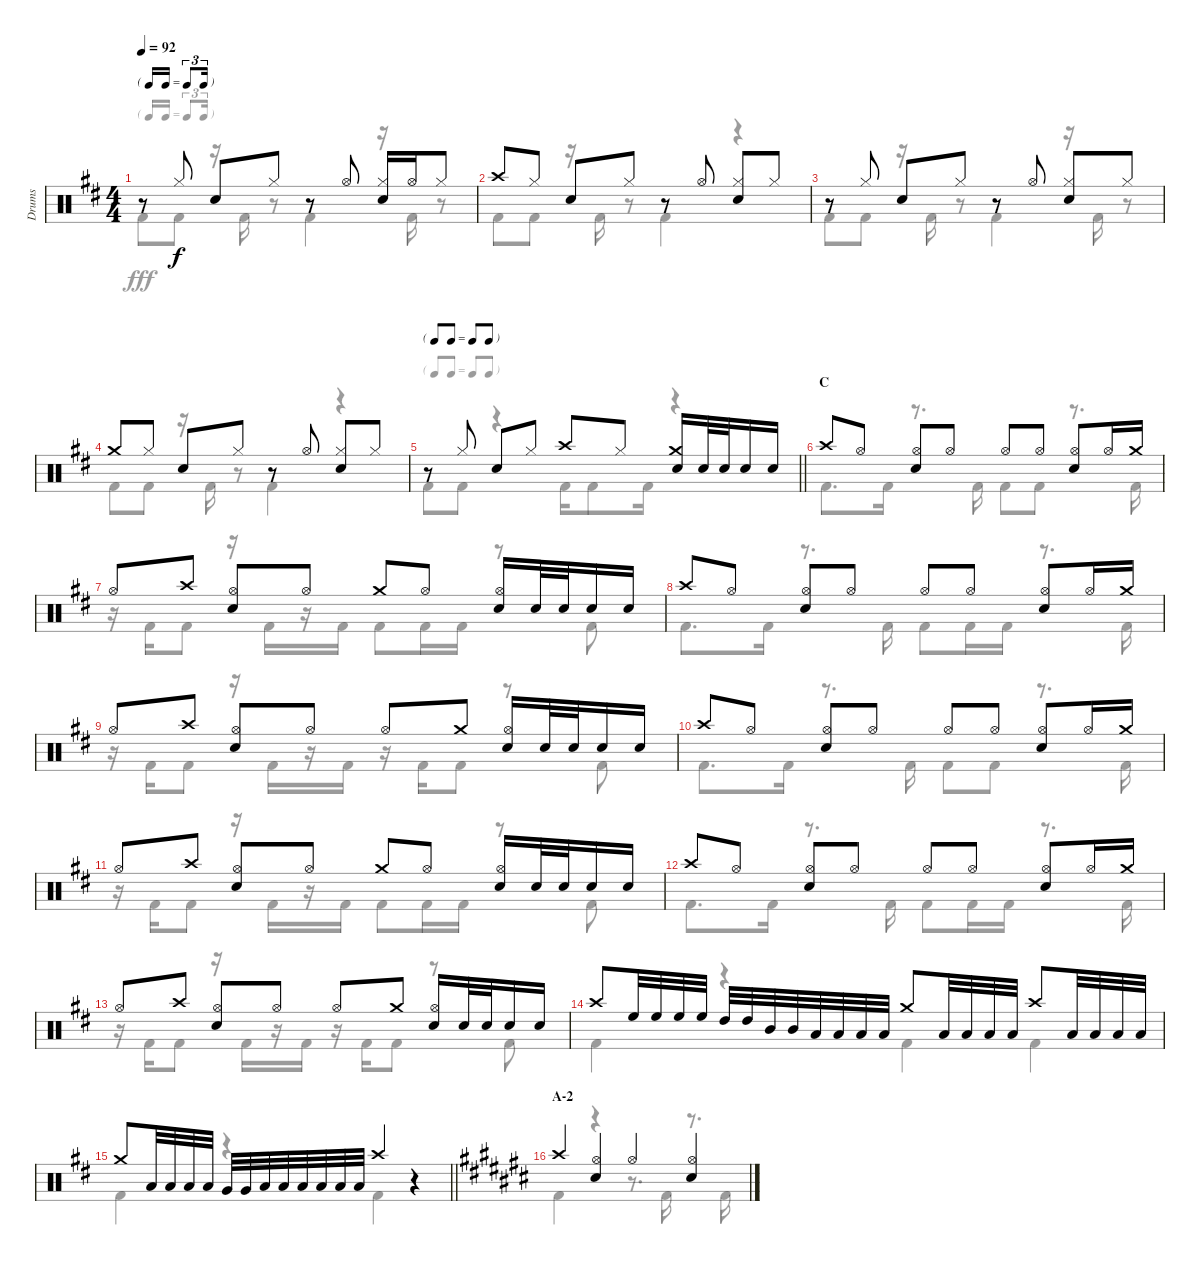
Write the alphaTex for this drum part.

\track ("Drums" "Drums") {instrument percussion}
\staff {score}
\articulation defaults
\voice
\ts (4 4)
\tf triplet16th
\tempo 92
\clef neutral
\ks d
r.8{dy f} "Hi-Hat (closed)".8 "Snare (hit) 2".8 "Hi-Hat (closed)".8 r.8 "Hi-Hat (open)".8 ("Hi-Hat (closed)" "Snare (hit) 2").16 "Hi-Hat (open)".16 "Hi-Hat (closed)".8 |
"Crash high (hit)".8 "Hi-Hat (closed)".8 "Snare (hit) 2".8 "Hi-Hat (closed)".8 r.8 "Hi-Hat (open)".8 ("Hi-Hat (closed)" "Snare (hit) 2").8 "Hi-Hat (closed)".8 |
r.8 "Hi-Hat (closed)".8 "Snare (hit) 2".8 "Hi-Hat (closed)".8 r.8 "Hi-Hat (open)".8 ("Hi-Hat (closed)" "Snare (hit) 2").8 "Hi-Hat (closed)".8 |
"Crash medium (hit)".8 "Hi-Hat (closed)".8 "Snare (hit) 2".8 "Hi-Hat (closed)".8 r.8 "Hi-Hat (open)".8 ("Hi-Hat (closed)" "Snare (hit) 2").8 "Hi-Hat (closed)".8 |
\tf none
\barLineRight lightlight
r.8 "Hi-Hat (closed)".8 "Snare (hit) 2".8 "Hi-Hat (closed)".8 "Crash high (hit)".8 "Hi-Hat (closed)".8 ("Crash medium (hit)" "Snare (hit) 2").16 "Snare (hit) 2".32 "Snare (hit) 2".32 "Snare (hit) 2".16 "Snare (hit) 2".16 |
\section ("" "C")
"Crash high (hit)".8 "Hi-Hat (open)".8 ("Hi-Hat (open)" "Snare (hit) 2").8 "Hi-Hat (open)".8 "Hi-Hat (open)".8 "Hi-Hat (open)".8 ("Hi-Hat (open)" "Snare (hit) 2").8 "Hi-Hat (open)".16 "Crash medium (hit)".16 |
"Hi-Hat (open)".8 "Crash high (hit)".8 ("Hi-Hat (open)" "Snare (hit) 2").8 "Hi-Hat (open)".8 "Crash medium (hit)".8 "Hi-Hat (open)".8 ("Hi-Hat (open)" "Snare (hit) 2").16 "Snare (hit) 2".32 "Snare (hit) 2".32 "Snare (hit) 2".16 "Snare (hit) 2".16 |
"Crash high (hit)".8 "Hi-Hat (open)".8 ("Hi-Hat (open)" "Snare (hit) 2").8 "Hi-Hat (open)".8 "Hi-Hat (open)".8 "Hi-Hat (open)".8 ("Hi-Hat (open)" "Snare (hit) 2").8 "Hi-Hat (open)".16 "Crash medium (hit)".16 |
"Hi-Hat (open)".8 "Crash high (hit)".8 ("Hi-Hat (open)" "Snare (hit) 2").8 "Hi-Hat (open)".8 "Hi-Hat (open)".8 "Crash medium (hit)".8 ("Hi-Hat (open)" "Snare (hit) 2").16 "Snare (hit) 2".32 "Snare (hit) 2".32 "Snare (hit) 2".16 "Snare (hit) 2".16 |
"Crash high (hit)".8 "Hi-Hat (open)".8 ("Hi-Hat (open)" "Snare (hit) 2").8 "Hi-Hat (open)".8 "Hi-Hat (open)".8 "Hi-Hat (open)".8 ("Hi-Hat (open)" "Snare (hit) 2").8 "Hi-Hat (open)".16 "Crash medium (hit)".16 |
"Hi-Hat (open)".8 "Crash high (hit)".8 ("Hi-Hat (open)" "Snare (hit) 2").8 "Hi-Hat (open)".8 "Crash medium (hit)".8 "Hi-Hat (open)".8 ("Hi-Hat (open)" "Snare (hit) 2").16 "Snare (hit) 2".32 "Snare (hit) 2".32 "Snare (hit) 2".16 "Snare (hit) 2".16 |
"Crash high (hit)".8 "Hi-Hat (open)".8 ("Hi-Hat (open)" "Snare (hit) 2").8 "Hi-Hat (open)".8 "Hi-Hat (open)".8 "Hi-Hat (open)".8 ("Hi-Hat (open)" "Snare (hit) 2").8 "Hi-Hat (open)".16 "Crash medium (hit)".16 |
"Hi-Hat (open)".8 "Crash high (hit)".8 ("Hi-Hat (open)" "Snare (hit) 2").8 "Hi-Hat (open)".8 "Hi-Hat (open)".8 "Crash medium (hit)".8 ("Hi-Hat (open)" "Snare (hit) 2").16 "Snare (hit) 2".32 "Snare (hit) 2".32 "Snare (hit) 2".16 "Snare (hit) 2".16 |
"Crash high (hit)".8 "High Floor Tom (hit)".32 "High Floor Tom (hit)".32 "High Floor Tom (hit)".32 "High Floor Tom (hit)".32 "High Tom (hit)".32 "High Tom (hit)".32 "Mid Tom (hit)".32 "Mid Tom (hit)".32 "Low Tom (hit)".32 "Low Tom (hit)".32 "Low Tom (hit)".32 "Low Tom (hit)".32 "Crash medium (hit)".8 "Low Tom (hit)".32 "Low Tom (hit)".32 "Low Tom (hit)".32 "Low Tom (hit)".32 "Crash high (hit)".8 "Low Tom (hit)".32 "Low Tom (hit)".32 "Low Tom (hit)".32 "Low Tom (hit)".32 |
\barLineRight lightlight "Crash medium (hit)".8 "Low Tom (hit)".32 "Low Tom (hit)".32 "Low Tom (hit)".32 "Low Tom (hit)".32 "Very Low Tom (hit)".32 "Very Low Tom (hit)".32 "Low Floor Tom (hit)".32 "Low Floor Tom (hit)".32 "Low Floor Tom (hit)".32 "Low Floor Tom (hit)".32 "Low Floor Tom (hit)".32 "Low Floor Tom (hit)".32 "Crash high (hit)".4
r.4 |
\section ("" "A-2")
\ks c# "Crash high (hit)".4
("Hi-Hat (open)" "Snare (hit) 2").4 "Hi-Hat (open)".4 ("Hi-Hat (open)" "Snare (hit) 2").4
\voice
\clef neutral
\ottava regular
\simile none
\ks d "Kick (hit) 2".8{dy fff} "Kick (hit) 2".8
r.16 "Kick (hit) 2".16 r.8 "Kick (hit) 2".4 r.16 "Kick (hit) 2".16 r.8 |
"Kick (hit) 2".8 "Kick (hit) 2".8 r.16 "Kick (hit) 2".16 r.8 "Kick (hit) 2".4 r.4 |
"Kick (hit) 2".8 "Kick (hit) 2".8 r.16 "Kick (hit) 2".16 r.8 "Kick (hit) 2".4 r.16 "Kick (hit) 2".16 r.8 |
"Kick (hit) 2".8 "Kick (hit) 2".8 r.16 "Kick (hit) 2".16 r.8 "Kick (hit) 2".4 r.4 |
\barLineRight lightlight "Kick (hit) 2".8 "Kick (hit) 2".8
r.4 "Kick (hit) 2".16 "Kick (hit) 2".8 "Kick (hit) 2".16 r.4 |
"Kick (hit) 2".8{d} "Kick (hit) 2".16 r.8{d} "Kick (hit) 2".16 "Kick (hit) 2".8 "Kick (hit) 2".8 r.8{d} "Kick (hit) 2".16 |
r.16 "Kick (hit) 2".16 "Kick (hit) 2".8 r.16 "Kick (hit) 2".16 r.16 "Kick (hit) 2".16 "Kick (hit) 2".8 "Kick (hit) 2".16 "Kick (hit) 2".16 r.8 "Kick (hit) 2".8 |
"Kick (hit) 2".8{d} "Kick (hit) 2".16 r.8{d} "Kick (hit) 2".16 "Kick (hit) 2".8 "Kick (hit) 2".16 "Kick (hit) 2".16 r.8{d} "Kick (hit) 2".16 |
r.16 "Kick (hit) 2".16 "Kick (hit) 2".8 r.16 "Kick (hit) 2".16 r.16 "Kick (hit) 2".16 r.16 "Kick (hit) 2".16 "Kick (hit) 2".8 r.8 "Kick (hit) 2".8 |
"Kick (hit) 2".8{d} "Kick (hit) 2".16 r.8{d} "Kick (hit) 2".16 "Kick (hit) 2".8 "Kick (hit) 2".8 r.8{d} "Kick (hit) 2".16 |
r.16 "Kick (hit) 2".16 "Kick (hit) 2".8 r.16 "Kick (hit) 2".16 r.16 "Kick (hit) 2".16 "Kick (hit) 2".8 "Kick (hit) 2".16 "Kick (hit) 2".16 r.8 "Kick (hit) 2".8 |
"Kick (hit) 2".8{d} "Kick (hit) 2".16 r.8{d} "Kick (hit) 2".16 "Kick (hit) 2".8 "Kick (hit) 2".16 "Kick (hit) 2".16 r.8{d} "Kick (hit) 2".16 |
r.16 "Kick (hit) 2".16 "Kick (hit) 2".8 r.16 "Kick (hit) 2".16 r.16 "Kick (hit) 2".16 r.16 "Kick (hit) 2".16 "Kick (hit) 2".8 r.8 "Kick (hit) 2".8 |
"Kick (hit) 2".4 r.4 "Kick (hit) 2".4 "Kick (hit) 2".4 |
\barLineRight lightlight "Kick (hit) 2".4
r.4 "Kick (hit) 2".4 r.4 |
\ks c# "Kick (hit) 2".4
r.4 r.8{d} "Kick (hit) 2".16 r.8{d} "Kick (hit) 2".16
